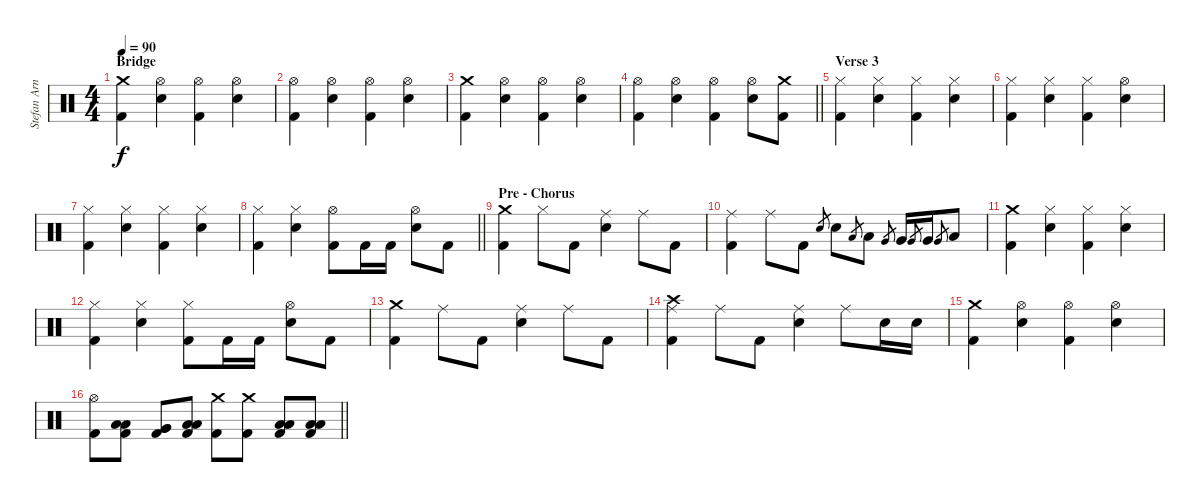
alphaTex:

\track ("Stefan Arnold" "Stefan Arn") {instrument percussion}
\staff {score}
\articulation defaults
\ts (4 4)
\section ("" "Bridge")
\tempo 90
\clef neutral
\ks c
("Crash medium (hit)" "Kick (hit) 2").4{dy f} ("Hi-Hat (open)" "Electric Snare (hit)").4 ("Hi-Hat (open)" "Kick (hit) 2").4 ("Hi-Hat (open)" "Electric Snare (hit)").4 |
("Hi-Hat (open)" "Kick (hit) 2").4 ("Hi-Hat (open)" "Electric Snare (hit)").4 ("Hi-Hat (open)" "Kick (hit) 2").4 ("Hi-Hat (open)" "Electric Snare (hit)").4 |
("Crash medium (hit)" "Kick (hit) 2").4 ("Hi-Hat (open)" "Electric Snare (hit)").4 ("Hi-Hat (open)" "Kick (hit) 2").4 ("Hi-Hat (open)" "Electric Snare (hit)").4 |
\barLineRight lightlight
("Hi-Hat (open)" "Kick (hit) 2").4 ("Hi-Hat (open)" "Electric Snare (hit)").4 ("Hi-Hat (open)" "Kick (hit) 2").4 ("Hi-Hat (open)" "Electric Snare (hit)").8 ("Crash medium (hit)" "Kick (hit) 2").8 |
\section ("" "Verse 3")
("Hi-Hat (closed)" "Kick (hit) 2").4 ("Hi-Hat (closed)" "Electric Snare (hit)").4 ("Hi-Hat (closed)" "Kick (hit) 2").4 ("Hi-Hat (closed)" "Electric Snare (hit)").4 |
("Hi-Hat (closed)" "Kick (hit) 2").4 ("Hi-Hat (closed)" "Electric Snare (hit)").4 ("Hi-Hat (closed)" "Kick (hit) 2").4 ("Hi-Hat (open)" "Electric Snare (hit)").4 |
("Hi-Hat (closed)" "Kick (hit) 2").4 ("Hi-Hat (closed)" "Electric Snare (hit)").4 ("Hi-Hat (closed)" "Kick (hit) 2").4 ("Hi-Hat (closed)" "Electric Snare (hit)").4 |
\barLineRight lightlight
("Hi-Hat (closed)" "Kick (hit) 2").4 ("Hi-Hat (closed)" "Electric Snare (hit)").4 ("Hi-Hat (open)" "Kick (hit) 2").8 "Kick (hit) 2".16 "Kick (hit) 2".16 ("Hi-Hat (open)" "Electric Snare (hit)").8 "Kick (hit) 2".8 |
\section ("" "Pre - Chorus")
("Crash medium (hit)" "Kick (hit) 2").4 "Hi-Hat (closed)".8 "Kick (hit) 2".8 ("Ride (middle)" "Electric Snare (hit)").4 "Ride (middle)".8 "Kick (hit) 2".8 |
("Ride (middle)" "Kick (hit) 2").4 "Ride (middle)".8 "Kick (hit) 2".8 "Electric Snare (hit)".8{gr} "Electric Snare (hit)".8 "Low Tom (hit)".8{gr} "Low Tom (hit)".8 "Very Low Tom (hit)".8{gr} "Very Low Tom (hit)".16 "Very Low Tom (hit)".8{gr} "Very Low Tom (hit)".16 "Very Low Tom (hit)".8{gr} "Low Floor Tom (hit)".8 |
("Crash medium (hit)" "Kick (hit) 2").4 ("Hi-Hat (closed)" "Electric Snare (hit)").4 ("Hi-Hat (closed)" "Kick (hit) 2").4 ("Hi-Hat (closed)" "Electric Snare (hit)").4 |
("Hi-Hat (closed)" "Kick (hit) 2").4 ("Hi-Hat (closed)" "Electric Snare (hit)").4 ("Hi-Hat (closed)" "Kick (hit) 2").8 "Kick (hit) 2".16 "Kick (hit) 2".16 ("Hi-Hat (open)" "Electric Snare (hit)").8 "Kick (hit) 2".8 |
("Crash medium (hit)" "Kick (hit) 2").4 "Ride (middle)".8 "Kick (hit) 2".8 ("Ride (middle)" "Electric Snare (hit)").4 "Ride (middle)".8 "Kick (hit) 2".8 |
("Ride (middle)" "Crash high (hit)" "Kick (hit) 2").4 "Ride (middle)".8 "Kick (hit) 2".8 ("Ride (middle)" "Electric Snare (hit)").4 "Ride (middle)".8 "Electric Snare (hit)".16 "Electric Snare (hit)".16 |
("Crash medium (hit)" "Kick (hit) 2").4 ("Hi-Hat (open)" "Electric Snare (hit)").4 ("Hi-Hat (open)" "Kick (hit) 2").4 ("Hi-Hat (open)" "Electric Snare (hit)").4 |
\barLineRight lightlight
("Hi-Hat (open)" "Kick (hit) 2").8 ("Low Tom (hit)" "Low Tom (hit)" "Kick (hit) 2").8 ("Very Low Tom (hit)" "Very Low Tom (hit)" "Kick (hit) 2").8 ("Low Floor Tom (hit)" "Low Floor Tom (hit)" "Kick (hit) 2").8 ("Crash medium (hit)" "Kick (hit) 2").8 ("Crash medium (hit)" "Kick (hit) 2").8 ("Low Floor Tom (hit)" "Low Floor Tom (hit)" "Kick (hit) 2").8 ("Low Floor Tom (hit)" "Low Floor Tom (hit)" "Kick (hit) 2").8
